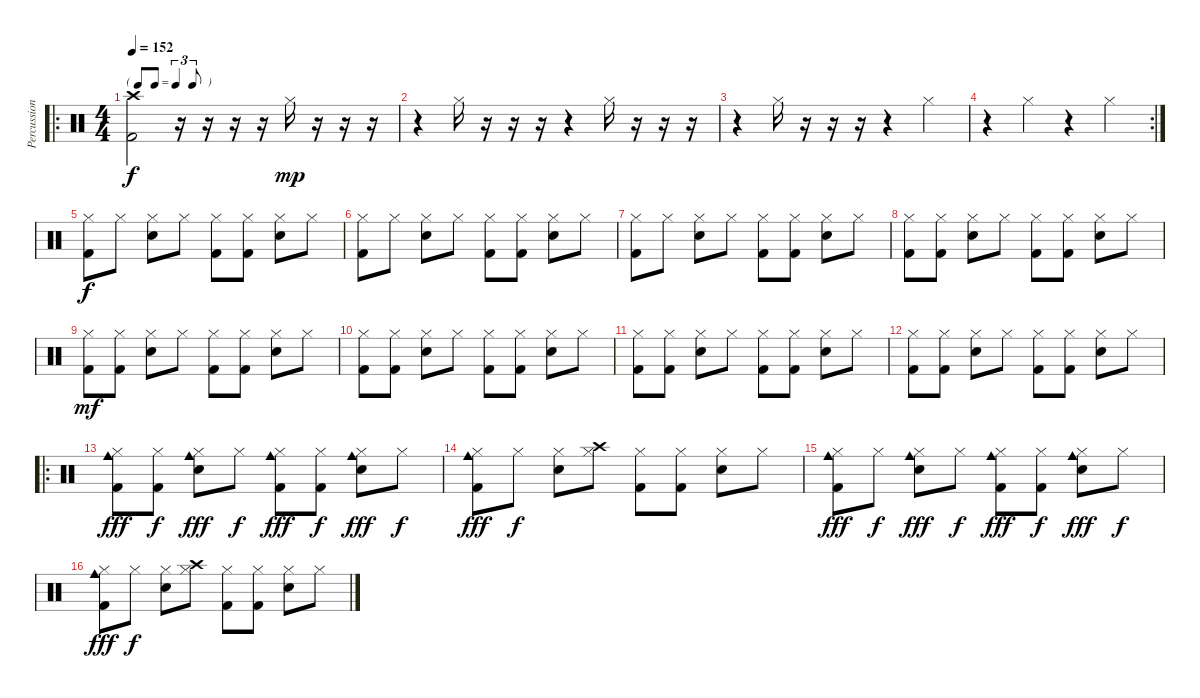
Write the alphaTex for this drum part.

\track ("Percussion" "Percussion") {instrument percussion}
\staff {score}
\articulation defaults
\ro
\ts (4 4)
\tf triplet8th
\tempo 152
\clef neutral
\ks c
("Crash high (hit)" "Kick (hit) 2").2{dy f} r.16 r.16 r.16 r.16 "Hi-Hat (closed)".16{dy mp} r.16 r.16 r.16 |
r.4 "Hi-Hat (closed)".16 r.16 r.16 r.16 r.4 "Hi-Hat (closed)".16 r.16 r.16 r.16 |
r.4 "Hi-Hat (closed)".16 r.16 r.16 r.16 r.4 "Hi-Hat (closed)".4 |
\rc 2
r.4 "Hi-Hat (closed)".4 r.4 "Hi-Hat (closed)".4 |
("Hi-Hat (closed)" "Kick (hit) 2").8{dy f} "Hi-Hat (closed)".8 ("Hi-Hat (closed)" "Electric Snare (hit)").8 "Hi-Hat (closed)".8 ("Hi-Hat (closed)" "Kick (hit) 2").8 ("Hi-Hat (closed)" "Kick (hit) 2").8 ("Hi-Hat (closed)" "Electric Snare (hit)").8 "Hi-Hat (closed)".8 |
("Hi-Hat (closed)" "Kick (hit) 2").8 "Hi-Hat (closed)".8 ("Hi-Hat (closed)" "Electric Snare (hit)").8 "Hi-Hat (closed)".8 ("Hi-Hat (closed)" "Kick (hit) 2").8 ("Hi-Hat (closed)" "Kick (hit) 2").8 ("Hi-Hat (closed)" "Electric Snare (hit)").8 "Hi-Hat (closed)".8 |
("Hi-Hat (closed)" "Kick (hit) 2").8 "Hi-Hat (closed)".8 ("Hi-Hat (closed)" "Electric Snare (hit)").8 "Hi-Hat (closed)".8 ("Hi-Hat (closed)" "Kick (hit) 2").8 ("Hi-Hat (closed)" "Kick (hit) 2").8 ("Hi-Hat (closed)" "Electric Snare (hit)").8 "Hi-Hat (closed)".8 |
("Hi-Hat (closed)" "Kick (hit) 2").8 ("Hi-Hat (closed)" "Kick (hit) 2").8 ("Hi-Hat (closed)" "Electric Snare (hit)").8 "Hi-Hat (closed)".8 ("Hi-Hat (closed)" "Kick (hit) 2").8 ("Hi-Hat (closed)" "Kick (hit) 2").8 ("Hi-Hat (closed)" "Electric Snare (hit)").8 "Hi-Hat (closed)".8 |
("Hi-Hat (closed)" "Kick (hit) 2").8{dy mf} ("Hi-Hat (closed)" "Kick (hit) 2").8 ("Hi-Hat (closed)" "Electric Snare (hit)").8 "Hi-Hat (closed)".8 ("Hi-Hat (closed)" "Kick (hit) 2").8 ("Hi-Hat (closed)" "Kick (hit) 2").8 ("Hi-Hat (closed)" "Electric Snare (hit)").8 "Hi-Hat (closed)".8 |
("Hi-Hat (closed)" "Kick (hit) 2").8 ("Hi-Hat (closed)" "Kick (hit) 2").8 ("Hi-Hat (closed)" "Electric Snare (hit)").8 "Hi-Hat (closed)".8 ("Hi-Hat (closed)" "Kick (hit) 2").8 ("Hi-Hat (closed)" "Kick (hit) 2").8 ("Hi-Hat (closed)" "Electric Snare (hit)").8 "Hi-Hat (closed)".8 |
("Hi-Hat (closed)" "Kick (hit) 2").8 ("Hi-Hat (closed)" "Kick (hit) 2").8 ("Hi-Hat (closed)" "Electric Snare (hit)").8 "Hi-Hat (closed)".8 ("Hi-Hat (closed)" "Kick (hit) 2").8 ("Hi-Hat (closed)" "Kick (hit) 2").8 ("Hi-Hat (closed)" "Electric Snare (hit)").8 "Hi-Hat (closed)".8 |
("Hi-Hat (closed)" "Kick (hit) 2").8 ("Hi-Hat (closed)" "Kick (hit) 2").8 ("Hi-Hat (closed)" "Electric Snare (hit)").8 "Hi-Hat (closed)".8 ("Hi-Hat (closed)" "Kick (hit) 2").8 ("Hi-Hat (closed)" "Kick (hit) 2").8 ("Hi-Hat (closed)" "Electric Snare (hit)").8 "Hi-Hat (closed)".8 |
\ro
("Cowbell medium (hit)" "Hi-Hat (closed)" "Kick (hit) 2").8{dy fff} ("Hi-Hat (closed)" "Kick (hit) 2").8{dy f} ("Cowbell medium (hit)" "Hi-Hat (closed)" "Electric Snare (hit)").8{dy fff} "Hi-Hat (closed)".8{dy f} ("Cowbell medium (hit)" "Hi-Hat (closed)" "Kick (hit) 2").8{dy fff} ("Hi-Hat (closed)" "Kick (hit) 2").8{dy f} ("Cowbell medium (hit)" "Hi-Hat (closed)" "Electric Snare (hit)").8{dy fff} "Hi-Hat (closed)".8{dy f} |
("Cowbell medium (hit)" "Hi-Hat (closed)" "Kick (hit) 2").8{dy fff} "Hi-Hat (closed)".8{dy f} ("Hi-Hat (closed)" "Electric Snare (hit)").8 ("Crash high (hit)" "Hi-Hat (closed)").8 ("Hi-Hat (closed)" "Kick (hit) 2").8 ("Hi-Hat (closed)" "Kick (hit) 2").8 ("Hi-Hat (closed)" "Electric Snare (hit)").8 "Hi-Hat (closed)".8 |
("Cowbell medium (hit)" "Hi-Hat (closed)" "Kick (hit) 2").8{dy fff} "Hi-Hat (closed)".8{dy f} ("Cowbell medium (hit)" "Hi-Hat (closed)" "Electric Snare (hit)").8{dy fff} "Hi-Hat (closed)".8{dy f} ("Cowbell medium (hit)" "Hi-Hat (closed)" "Kick (hit) 2").8{dy fff} ("Hi-Hat (closed)" "Kick (hit) 2").8{dy f} ("Cowbell medium (hit)" "Hi-Hat (closed)" "Electric Snare (hit)").8{dy fff} "Hi-Hat (closed)".8{dy f} |
("Cowbell medium (hit)" "Hi-Hat (closed)" "Kick (hit) 2").8{dy fff} "Hi-Hat (closed)".8{dy f} ("Hi-Hat (closed)" "Electric Snare (hit)").8 ("Crash high (hit)" "Hi-Hat (closed)").8 ("Hi-Hat (closed)" "Kick (hit) 2").8 ("Hi-Hat (closed)" "Kick (hit) 2").8 ("Hi-Hat (closed)" "Electric Snare (hit)").8 "Hi-Hat (closed)".8
